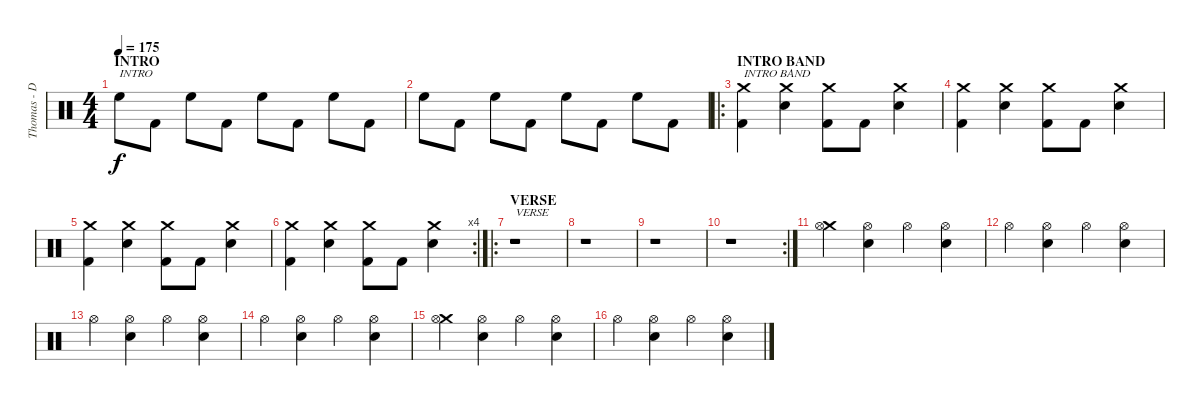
\track ("Thomas - Drums" "Thomas - D") {instrument percussion}
\staff {score}
\articulation defaults
\ts (4 4)
\section ("" "INTRO")
\tempo 175
\clef neutral
\ks c "High Floor Tom (hit)".8{txt "INTRO" dy f} "Kick (hit) 2".8 "High Floor Tom (hit)".8 "Kick (hit) 2".8 "High Floor Tom (hit)".8 "Kick (hit) 2".8 "High Floor Tom (hit)".8 "Kick (hit) 2".8
|
"High Floor Tom (hit)".8 "Kick (hit) 2".8 "High Floor Tom (hit)".8 "Kick (hit) 2".8 "High Floor Tom (hit)".8 "Kick (hit) 2".8 "High Floor Tom (hit)".8 "Kick (hit) 2".8 |
\ro
\section ("" "INTRO BAND")
("Crash medium (hit)" "Kick (hit) 2").4{txt "INTRO BAND"} ("Crash medium (hit)" "Electric Snare (hit)").4 ("Crash medium (hit)" "Kick (hit) 2").8 "Kick (hit) 2".8 ("Crash medium (hit)" "Electric Snare (hit)").4 |
("Crash medium (hit)" "Kick (hit) 2").4 ("Crash medium (hit)" "Electric Snare (hit)").4 ("Crash medium (hit)" "Kick (hit) 2").8 "Kick (hit) 2".8 ("Crash medium (hit)" "Electric Snare (hit)").4 |
("Crash medium (hit)" "Kick (hit) 2").4 ("Crash medium (hit)" "Electric Snare (hit)").4 ("Crash medium (hit)" "Kick (hit) 2").8 "Kick (hit) 2".8 ("Crash medium (hit)" "Electric Snare (hit)").4 |
\rc 4
("Crash medium (hit)" "Kick (hit) 2").4 ("Crash medium (hit)" "Electric Snare (hit)").4 ("Crash medium (hit)" "Kick (hit) 2").8 "Kick (hit) 2".8 ("Crash medium (hit)" "Electric Snare (hit)").4 |
\ro
\section ("" "VERSE")
r.1{txt "VERSE"} |
r.1 |
r.1 |
\rc 2
r.1 |
("Crash medium (hit)" "Hi-Hat (open)").4 ("Electric Snare (hit)" "Hi-Hat (open)").4 "Hi-Hat (open)".4 ("Electric Snare (hit)" "Hi-Hat (open)").4 |
"Hi-Hat (open)".4 ("Electric Snare (hit)" "Hi-Hat (open)").4 "Hi-Hat (open)".4 ("Electric Snare (hit)" "Hi-Hat (open)").4 |
"Hi-Hat (open)".4 ("Electric Snare (hit)" "Hi-Hat (open)").4 "Hi-Hat (open)".4 ("Electric Snare (hit)" "Hi-Hat (open)").4 |
"Hi-Hat (open)".4 ("Electric Snare (hit)" "Hi-Hat (open)").4 "Hi-Hat (open)".4 ("Electric Snare (hit)" "Hi-Hat (open)").4 |
("Crash medium (hit)" "Hi-Hat (open)").4 ("Electric Snare (hit)" "Hi-Hat (open)").4 "Hi-Hat (open)".4 ("Electric Snare (hit)" "Hi-Hat (open)").4 |
"Hi-Hat (open)".4 ("Electric Snare (hit)" "Hi-Hat (open)").4 "Hi-Hat (open)".4 ("Electric Snare (hit)" "Hi-Hat (open)").4
